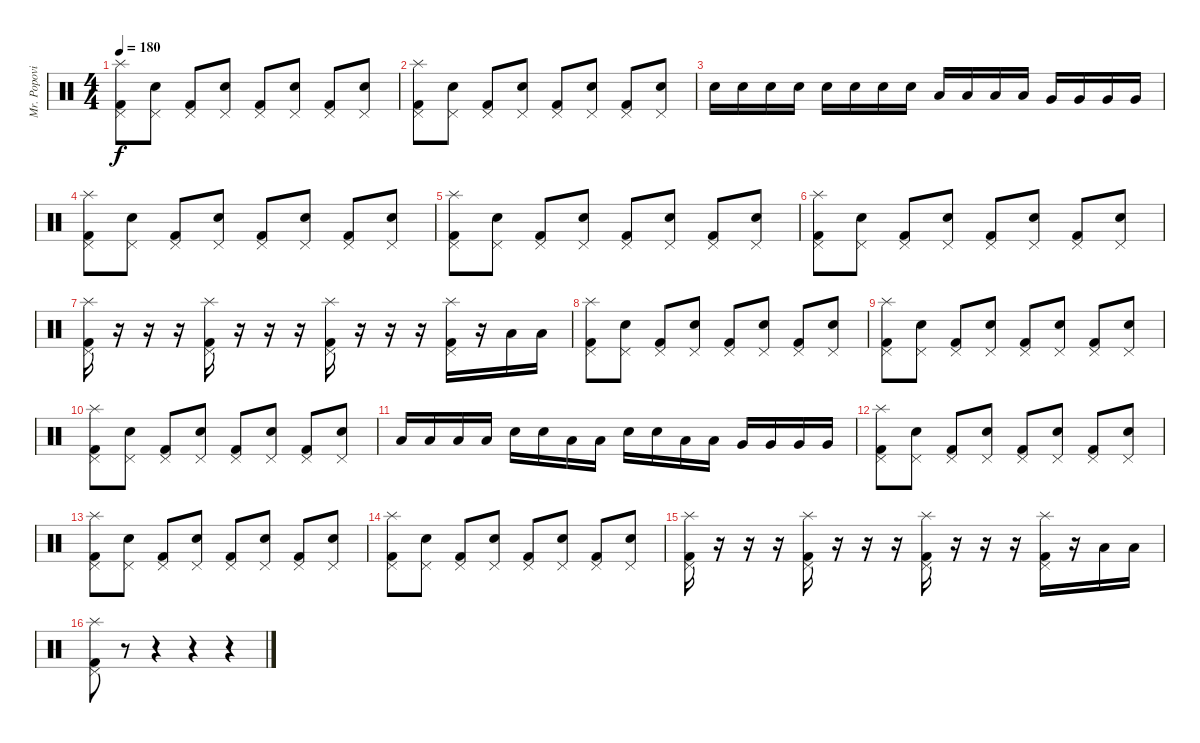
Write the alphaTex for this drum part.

\track ("Mr. Popovic" "Mr. Popovi") {instrument percussion}
\staff {score}
\articulation defaults
\ts (4 4)
\tempo 180
\clef neutral
\ks c
("Splash (hit)" "Pedal Hi-Hat (hit)" "Kick (hit) 2").8{dy f} ("Pedal Hi-Hat (hit)" "Electric Snare (hit)").8 ("Pedal Hi-Hat (hit)" "Kick (hit) 2").8 ("Pedal Hi-Hat (hit)" "Electric Snare (hit)").8 ("Pedal Hi-Hat (hit)" "Kick (hit) 2").8 ("Pedal Hi-Hat (hit)" "Electric Snare (hit)").8 ("Pedal Hi-Hat (hit)" "Kick (hit) 2").8 ("Pedal Hi-Hat (hit)" "Electric Snare (hit)").8 |
("Splash (hit)" "Pedal Hi-Hat (hit)" "Kick (hit) 2").8 ("Pedal Hi-Hat (hit)" "Electric Snare (hit)").8 ("Pedal Hi-Hat (hit)" "Kick (hit) 2").8 ("Pedal Hi-Hat (hit)" "Electric Snare (hit)").8 ("Pedal Hi-Hat (hit)" "Kick (hit) 2").8 ("Pedal Hi-Hat (hit)" "Electric Snare (hit)").8 ("Pedal Hi-Hat (hit)" "Kick (hit) 2").8 ("Pedal Hi-Hat (hit)" "Electric Snare (hit)").8 |
"Electric Snare (hit)".16 "Electric Snare (hit)".16 "Electric Snare (hit)".16 "Electric Snare (hit)".16 "Electric Snare (hit)".16 "Electric Snare (hit)".16 "Electric Snare (hit)".16 "Electric Snare (hit)".16 "Low Tom (hit)".16 "Low Tom (hit)".16 "Low Tom (hit)".16 "Low Tom (hit)".16 "Very Low Tom (hit)".16 "Very Low Tom (hit)".16 "Very Low Tom (hit)".16 "Very Low Tom (hit)".16 |
("Splash (hit)" "Pedal Hi-Hat (hit)" "Kick (hit) 2").8 ("Pedal Hi-Hat (hit)" "Electric Snare (hit)").8 ("Pedal Hi-Hat (hit)" "Kick (hit) 2").8 ("Pedal Hi-Hat (hit)" "Electric Snare (hit)").8 ("Pedal Hi-Hat (hit)" "Kick (hit) 2").8 ("Pedal Hi-Hat (hit)" "Electric Snare (hit)").8 ("Pedal Hi-Hat (hit)" "Kick (hit) 2").8 ("Pedal Hi-Hat (hit)" "Electric Snare (hit)").8 |
("Splash (hit)" "Pedal Hi-Hat (hit)" "Kick (hit) 2").8 ("Pedal Hi-Hat (hit)" "Electric Snare (hit)").8 ("Pedal Hi-Hat (hit)" "Kick (hit) 2").8 ("Pedal Hi-Hat (hit)" "Electric Snare (hit)").8 ("Pedal Hi-Hat (hit)" "Kick (hit) 2").8 ("Pedal Hi-Hat (hit)" "Electric Snare (hit)").8 ("Pedal Hi-Hat (hit)" "Kick (hit) 2").8 ("Pedal Hi-Hat (hit)" "Electric Snare (hit)").8 |
("Splash (hit)" "Pedal Hi-Hat (hit)" "Kick (hit) 2").8 ("Pedal Hi-Hat (hit)" "Electric Snare (hit)").8 ("Pedal Hi-Hat (hit)" "Kick (hit) 2").8 ("Pedal Hi-Hat (hit)" "Electric Snare (hit)").8 ("Pedal Hi-Hat (hit)" "Kick (hit) 2").8 ("Pedal Hi-Hat (hit)" "Electric Snare (hit)").8 ("Pedal Hi-Hat (hit)" "Kick (hit) 2").8 ("Pedal Hi-Hat (hit)" "Electric Snare (hit)").8 |
("Splash (hit)" "Pedal Hi-Hat (hit)" "Kick (hit) 2").16 r.16 r.16 r.16 ("Splash (hit)" "Pedal Hi-Hat (hit)" "Kick (hit) 2").16 r.16 r.16 r.16 ("Splash (hit)" "Pedal Hi-Hat (hit)" "Kick (hit) 2").16 r.16 r.16 r.16 ("Splash (hit)" "Pedal Hi-Hat (hit)" "Kick (hit) 2").16 r.16 "Low Tom (hit)".16 "Low Tom (hit)".16 |
("Splash (hit)" "Pedal Hi-Hat (hit)" "Kick (hit) 2").8 ("Pedal Hi-Hat (hit)" "Electric Snare (hit)").8 ("Pedal Hi-Hat (hit)" "Kick (hit) 2").8 ("Pedal Hi-Hat (hit)" "Electric Snare (hit)").8 ("Pedal Hi-Hat (hit)" "Kick (hit) 2").8 ("Pedal Hi-Hat (hit)" "Electric Snare (hit)").8 ("Pedal Hi-Hat (hit)" "Kick (hit) 2").8 ("Pedal Hi-Hat (hit)" "Electric Snare (hit)").8 |
("Splash (hit)" "Pedal Hi-Hat (hit)" "Kick (hit) 2").8 ("Pedal Hi-Hat (hit)" "Electric Snare (hit)").8 ("Pedal Hi-Hat (hit)" "Kick (hit) 2").8 ("Pedal Hi-Hat (hit)" "Electric Snare (hit)").8 ("Pedal Hi-Hat (hit)" "Kick (hit) 2").8 ("Pedal Hi-Hat (hit)" "Electric Snare (hit)").8 ("Pedal Hi-Hat (hit)" "Kick (hit) 2").8 ("Pedal Hi-Hat (hit)" "Electric Snare (hit)").8 |
("Splash (hit)" "Pedal Hi-Hat (hit)" "Kick (hit) 2").8 ("Pedal Hi-Hat (hit)" "Electric Snare (hit)").8 ("Pedal Hi-Hat (hit)" "Kick (hit) 2").8 ("Pedal Hi-Hat (hit)" "Electric Snare (hit)").8 ("Pedal Hi-Hat (hit)" "Kick (hit) 2").8 ("Pedal Hi-Hat (hit)" "Electric Snare (hit)").8 ("Pedal Hi-Hat (hit)" "Kick (hit) 2").8 ("Pedal Hi-Hat (hit)" "Electric Snare (hit)").8 |
"Low Tom (hit)".16 "Low Tom (hit)".16 "Low Tom (hit)".16 "Low Tom (hit)".16 "Electric Snare (hit)".16 "Electric Snare (hit)".16 "Low Tom (hit)".16 "Low Tom (hit)".16 "Electric Snare (hit)".16 "Electric Snare (hit)".16 "Low Tom (hit)".16 "Low Tom (hit)".16 "Very Low Tom (hit)".16 "Very Low Tom (hit)".16 "Very Low Tom (hit)".16 "Very Low Tom (hit)".16 |
("Splash (hit)" "Pedal Hi-Hat (hit)" "Kick (hit) 2").8 ("Pedal Hi-Hat (hit)" "Electric Snare (hit)").8 ("Pedal Hi-Hat (hit)" "Kick (hit) 2").8 ("Pedal Hi-Hat (hit)" "Electric Snare (hit)").8 ("Pedal Hi-Hat (hit)" "Kick (hit) 2").8 ("Pedal Hi-Hat (hit)" "Electric Snare (hit)").8 ("Pedal Hi-Hat (hit)" "Kick (hit) 2").8 ("Pedal Hi-Hat (hit)" "Electric Snare (hit)").8 |
("Splash (hit)" "Pedal Hi-Hat (hit)" "Kick (hit) 2").8 ("Pedal Hi-Hat (hit)" "Electric Snare (hit)").8 ("Pedal Hi-Hat (hit)" "Kick (hit) 2").8 ("Pedal Hi-Hat (hit)" "Electric Snare (hit)").8 ("Pedal Hi-Hat (hit)" "Kick (hit) 2").8 ("Pedal Hi-Hat (hit)" "Electric Snare (hit)").8 ("Pedal Hi-Hat (hit)" "Kick (hit) 2").8 ("Pedal Hi-Hat (hit)" "Electric Snare (hit)").8 |
("Splash (hit)" "Pedal Hi-Hat (hit)" "Kick (hit) 2").8 ("Pedal Hi-Hat (hit)" "Electric Snare (hit)").8 ("Pedal Hi-Hat (hit)" "Kick (hit) 2").8 ("Pedal Hi-Hat (hit)" "Electric Snare (hit)").8 ("Pedal Hi-Hat (hit)" "Kick (hit) 2").8 ("Pedal Hi-Hat (hit)" "Electric Snare (hit)").8 ("Pedal Hi-Hat (hit)" "Kick (hit) 2").8 ("Pedal Hi-Hat (hit)" "Electric Snare (hit)").8 |
("Splash (hit)" "Pedal Hi-Hat (hit)" "Kick (hit) 2").16 r.16 r.16 r.16 ("Splash (hit)" "Pedal Hi-Hat (hit)" "Kick (hit) 2").16 r.16 r.16 r.16 ("Splash (hit)" "Pedal Hi-Hat (hit)" "Kick (hit) 2").16 r.16 r.16 r.16 ("Splash (hit)" "Pedal Hi-Hat (hit)" "Kick (hit) 2").16 r.16 "Low Tom (hit)".16 "Low Tom (hit)".16 |
("Splash (hit)" "Pedal Hi-Hat (hit)" "Kick (hit) 2").8 r.8 r.4 r.4 r.4
